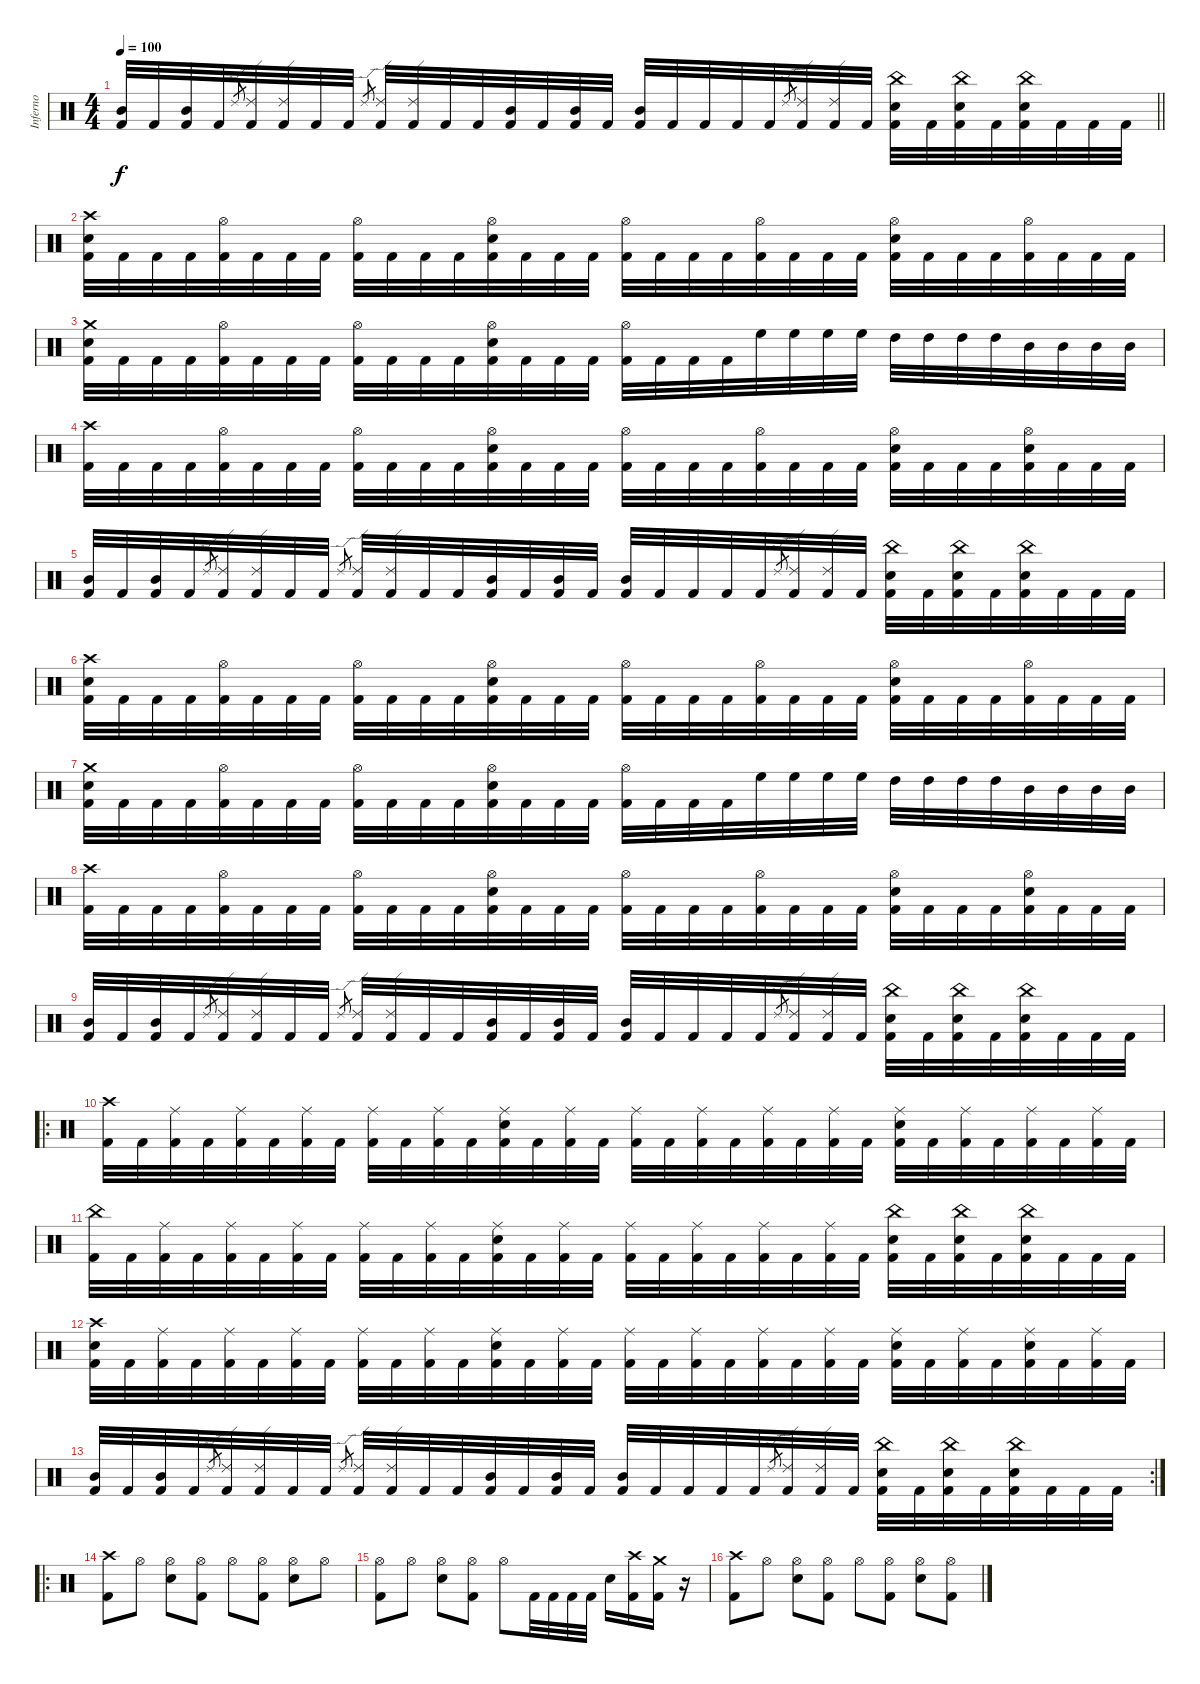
\track ("Inferno" "Inferno") {instrument percussion}
\staff {score}
\articulation defaults
\ts (4 4)
\tempo 100
\clef neutral
\barLineRight lightlight
\ks c
("Kick (hit) 2" "Mid Tom (hit)").32{dy f} "Kick (hit) 2".32 ("Kick (hit) 2" "Mid Tom (hit)").32 "Kick (hit) 2".32 "Ride (edge) 2".8{gr} ("Kick (hit) 2" "Ride (edge) 2").32 ("Kick (hit) 2" "Ride (edge) 2").32 "Kick (hit) 2".32 "Kick (hit) 2".32 "Ride (edge) 2".8{gr} ("Kick (hit) 2" "Ride (edge) 2").32 ("Kick (hit) 2" "Ride (edge) 2").32 "Kick (hit) 2".32 "Kick (hit) 2".32 ("Kick (hit) 2" "Mid Tom (hit)").32 "Kick (hit) 2".32 ("Kick (hit) 2" "Mid Tom (hit)").32 "Kick (hit) 2".32 ("Kick (hit) 2" "Mid Tom (hit)").32 "Kick (hit) 2".32 "Kick (hit) 2".32 "Kick (hit) 2".32 "Kick (hit) 2".32 "Ride (edge) 2".8{gr} ("Kick (hit) 2" "Ride (edge) 2").32 ("Kick (hit) 2" "Ride (edge) 2").32 "Kick (hit) 2".32 ("Kick (hit) 2" "Electric Snare (hit)" "China (hit)").32 "Kick (hit) 2".32 ("Kick (hit) 2" "Electric Snare (hit)" "China (hit)").32 "Kick (hit) 2".32 ("Kick (hit) 2" "Electric Snare (hit)" "China (hit)").32 "Kick (hit) 2".32 "Kick (hit) 2".32 "Kick (hit) 2".32 |
\section ("" "")
("Kick (hit) 2" "Electric Snare (hit)" "Crash high (hit)").32 "Kick (hit) 2".32 "Kick (hit) 2".32 "Kick (hit) 2".32 ("Kick (hit) 2" "Hi-Hat (open)").32 "Kick (hit) 2".32 "Kick (hit) 2".32 "Kick (hit) 2".32 ("Kick (hit) 2" "Hi-Hat (open)").32 "Kick (hit) 2".32 "Kick (hit) 2".32 "Kick (hit) 2".32 ("Kick (hit) 2" "Electric Snare (hit)" "Hi-Hat (open)").32 "Kick (hit) 2".32 "Kick (hit) 2".32 "Kick (hit) 2".32 ("Kick (hit) 2" "Hi-Hat (open)").32 "Kick (hit) 2".32 "Kick (hit) 2".32 "Kick (hit) 2".32 ("Kick (hit) 2" "Hi-Hat (open)").32 "Kick (hit) 2".32 "Kick (hit) 2".32 "Kick (hit) 2".32 ("Kick (hit) 2" "Electric Snare (hit)" "Hi-Hat (open)").32 "Kick (hit) 2".32 "Kick (hit) 2".32 "Kick (hit) 2".32 ("Kick (hit) 2" "Hi-Hat (open)").32 "Kick (hit) 2".32 "Kick (hit) 2".32 "Kick (hit) 2".32 |
("Kick (hit) 2" "Electric Snare (hit)" "Crash medium (hit)").32 "Kick (hit) 2".32 "Kick (hit) 2".32 "Kick (hit) 2".32 ("Kick (hit) 2" "Hi-Hat (open)").32 "Kick (hit) 2".32 "Kick (hit) 2".32 "Kick (hit) 2".32 ("Kick (hit) 2" "Hi-Hat (open)").32 "Kick (hit) 2".32 "Kick (hit) 2".32 "Kick (hit) 2".32 ("Kick (hit) 2" "Electric Snare (hit)" "Hi-Hat (open)").32 "Kick (hit) 2".32 "Kick (hit) 2".32 "Kick (hit) 2".32 ("Kick (hit) 2" "Hi-Hat (open)").32 "Kick (hit) 2".32 "Kick (hit) 2".32 "Kick (hit) 2".32 "High Floor Tom (hit)".32 "High Floor Tom (hit)".32 "High Floor Tom (hit)".32 "High Floor Tom (hit)".32 "High Tom (hit)".32 "High Tom (hit)".32 "High Tom (hit)".32 "High Tom (hit)".32 "Mid Tom (hit)".32 "Mid Tom (hit)".32 "Mid Tom (hit)".32 "Mid Tom (hit)".32 |
("Kick (hit) 2" "Crash high (hit)").32 "Kick (hit) 2".32 "Kick (hit) 2".32 "Kick (hit) 2".32 ("Kick (hit) 2" "Hi-Hat (open)").32 "Kick (hit) 2".32 "Kick (hit) 2".32 "Kick (hit) 2".32 ("Kick (hit) 2" "Hi-Hat (open)").32 "Kick (hit) 2".32 "Kick (hit) 2".32 "Kick (hit) 2".32 ("Kick (hit) 2" "Electric Snare (hit)" "Hi-Hat (open)").32 "Kick (hit) 2".32 "Kick (hit) 2".32 "Kick (hit) 2".32 ("Kick (hit) 2" "Hi-Hat (open)").32 "Kick (hit) 2".32 "Kick (hit) 2".32 "Kick (hit) 2".32 ("Kick (hit) 2" "Hi-Hat (open)").32 "Kick (hit) 2".32 "Kick (hit) 2".32 "Kick (hit) 2".32 ("Kick (hit) 2" "Electric Snare (hit)" "Hi-Hat (open)").32 "Kick (hit) 2".32 "Kick (hit) 2".32 "Kick (hit) 2".32 ("Kick (hit) 2" "Electric Snare (hit)" "Hi-Hat (open)").32 "Kick (hit) 2".32 "Kick (hit) 2".32 "Kick (hit) 2".32 |
("Kick (hit) 2" "Mid Tom (hit)").32 "Kick (hit) 2".32 ("Kick (hit) 2" "Mid Tom (hit)").32 "Kick (hit) 2".32 "Ride (edge) 2".8{gr} ("Kick (hit) 2" "Ride (edge) 2").32 ("Kick (hit) 2" "Ride (edge) 2").32 "Kick (hit) 2".32 "Kick (hit) 2".32 "Ride (edge) 2".8{gr} ("Kick (hit) 2" "Ride (edge) 2").32 ("Kick (hit) 2" "Ride (edge) 2").32 "Kick (hit) 2".32 "Kick (hit) 2".32 ("Kick (hit) 2" "Mid Tom (hit)").32 "Kick (hit) 2".32 ("Kick (hit) 2" "Mid Tom (hit)").32 "Kick (hit) 2".32 ("Kick (hit) 2" "Mid Tom (hit)").32 "Kick (hit) 2".32 "Kick (hit) 2".32 "Kick (hit) 2".32 "Kick (hit) 2".32 "Ride (edge) 2".8{gr} ("Kick (hit) 2" "Ride (edge) 2").32 ("Kick (hit) 2" "Ride (edge) 2").32 "Kick (hit) 2".32 ("Kick (hit) 2" "Electric Snare (hit)" "China (hit)").32 "Kick (hit) 2".32 ("Kick (hit) 2" "Electric Snare (hit)" "China (hit)").32 "Kick (hit) 2".32 ("Kick (hit) 2" "Electric Snare (hit)" "China (hit)").32 "Kick (hit) 2".32 "Kick (hit) 2".32 "Kick (hit) 2".32 |
("Kick (hit) 2" "Electric Snare (hit)" "Crash high (hit)").32 "Kick (hit) 2".32 "Kick (hit) 2".32 "Kick (hit) 2".32 ("Kick (hit) 2" "Hi-Hat (open)").32 "Kick (hit) 2".32 "Kick (hit) 2".32 "Kick (hit) 2".32 ("Kick (hit) 2" "Hi-Hat (open)").32 "Kick (hit) 2".32 "Kick (hit) 2".32 "Kick (hit) 2".32 ("Kick (hit) 2" "Electric Snare (hit)" "Hi-Hat (open)").32 "Kick (hit) 2".32 "Kick (hit) 2".32 "Kick (hit) 2".32 ("Kick (hit) 2" "Hi-Hat (open)").32 "Kick (hit) 2".32 "Kick (hit) 2".32 "Kick (hit) 2".32 ("Kick (hit) 2" "Hi-Hat (open)").32 "Kick (hit) 2".32 "Kick (hit) 2".32 "Kick (hit) 2".32 ("Kick (hit) 2" "Electric Snare (hit)" "Hi-Hat (open)").32 "Kick (hit) 2".32 "Kick (hit) 2".32 "Kick (hit) 2".32 ("Kick (hit) 2" "Hi-Hat (open)").32 "Kick (hit) 2".32 "Kick (hit) 2".32 "Kick (hit) 2".32 |
("Kick (hit) 2" "Electric Snare (hit)" "Crash medium (hit)").32 "Kick (hit) 2".32 "Kick (hit) 2".32 "Kick (hit) 2".32 ("Kick (hit) 2" "Hi-Hat (open)").32 "Kick (hit) 2".32 "Kick (hit) 2".32 "Kick (hit) 2".32 ("Kick (hit) 2" "Hi-Hat (open)").32 "Kick (hit) 2".32 "Kick (hit) 2".32 "Kick (hit) 2".32 ("Kick (hit) 2" "Electric Snare (hit)" "Hi-Hat (open)").32 "Kick (hit) 2".32 "Kick (hit) 2".32 "Kick (hit) 2".32 ("Kick (hit) 2" "Hi-Hat (open)").32 "Kick (hit) 2".32 "Kick (hit) 2".32 "Kick (hit) 2".32 "High Floor Tom (hit)".32 "High Floor Tom (hit)".32 "High Floor Tom (hit)".32 "High Floor Tom (hit)".32 "High Tom (hit)".32 "High Tom (hit)".32 "High Tom (hit)".32 "High Tom (hit)".32 "Mid Tom (hit)".32 "Mid Tom (hit)".32 "Mid Tom (hit)".32 "Mid Tom (hit)".32 |
("Kick (hit) 2" "Crash high (hit)").32 "Kick (hit) 2".32 "Kick (hit) 2".32 "Kick (hit) 2".32 ("Kick (hit) 2" "Hi-Hat (open)").32 "Kick (hit) 2".32 "Kick (hit) 2".32 "Kick (hit) 2".32 ("Kick (hit) 2" "Hi-Hat (open)").32 "Kick (hit) 2".32 "Kick (hit) 2".32 "Kick (hit) 2".32 ("Kick (hit) 2" "Electric Snare (hit)" "Hi-Hat (open)").32 "Kick (hit) 2".32 "Kick (hit) 2".32 "Kick (hit) 2".32 ("Kick (hit) 2" "Hi-Hat (open)").32 "Kick (hit) 2".32 "Kick (hit) 2".32 "Kick (hit) 2".32 ("Kick (hit) 2" "Hi-Hat (open)").32 "Kick (hit) 2".32 "Kick (hit) 2".32 "Kick (hit) 2".32 ("Kick (hit) 2" "Electric Snare (hit)" "Hi-Hat (open)").32 "Kick (hit) 2".32 "Kick (hit) 2".32 "Kick (hit) 2".32 ("Kick (hit) 2" "Electric Snare (hit)" "Hi-Hat (open)").32 "Kick (hit) 2".32 "Kick (hit) 2".32 "Kick (hit) 2".32 |
("Kick (hit) 2" "Mid Tom (hit)").32 "Kick (hit) 2".32 ("Kick (hit) 2" "Mid Tom (hit)").32 "Kick (hit) 2".32 "Ride (edge) 2".8{gr} ("Kick (hit) 2" "Ride (edge) 2").32 ("Kick (hit) 2" "Ride (edge) 2").32 "Kick (hit) 2".32 "Kick (hit) 2".32 "Ride (edge) 2".8{gr} ("Kick (hit) 2" "Ride (edge) 2").32 ("Kick (hit) 2" "Ride (edge) 2").32 "Kick (hit) 2".32 "Kick (hit) 2".32 ("Kick (hit) 2" "Mid Tom (hit)").32 "Kick (hit) 2".32 ("Kick (hit) 2" "Mid Tom (hit)").32 "Kick (hit) 2".32 ("Kick (hit) 2" "Mid Tom (hit)").32 "Kick (hit) 2".32 "Kick (hit) 2".32 "Kick (hit) 2".32 "Kick (hit) 2".32 "Ride (edge) 2".8{gr} ("Kick (hit) 2" "Ride (edge) 2").32 ("Kick (hit) 2" "Ride (edge) 2").32 "Kick (hit) 2".32 ("Kick (hit) 2" "Electric Snare (hit)" "China (hit)").32 "Kick (hit) 2".32 ("Kick (hit) 2" "Electric Snare (hit)" "China (hit)").32 "Kick (hit) 2".32 ("Kick (hit) 2" "Electric Snare (hit)" "China (hit)").32 "Kick (hit) 2".32 "Kick (hit) 2".32 "Kick (hit) 2".32 |
\ro
("Kick (hit) 2" "Crash high (hit)").32 "Kick (hit) 2".32 ("Kick (hit) 2" "Ride (middle)").32 "Kick (hit) 2".32 ("Kick (hit) 2" "Ride (middle)").32 "Kick (hit) 2".32 ("Kick (hit) 2" "Ride (middle)").32 "Kick (hit) 2".32 ("Kick (hit) 2" "Ride (middle)").32 "Kick (hit) 2".32 ("Kick (hit) 2" "Ride (middle)").32 "Kick (hit) 2".32 ("Kick (hit) 2" "Electric Snare (hit)" "Ride (middle)").32 "Kick (hit) 2".32 ("Kick (hit) 2" "Ride (middle)").32 "Kick (hit) 2".32 ("Kick (hit) 2" "Ride (middle)").32 "Kick (hit) 2".32 ("Kick (hit) 2" "Ride (middle)").32 "Kick (hit) 2".32 ("Kick (hit) 2" "Ride (middle)").32 "Kick (hit) 2".32 ("Kick (hit) 2" "Ride (middle)").32 "Kick (hit) 2".32 ("Kick (hit) 2" "Electric Snare (hit)" "Ride (middle)").32 "Kick (hit) 2".32 ("Kick (hit) 2" "Ride (middle)").32 "Kick (hit) 2".32 ("Kick (hit) 2" "Ride (middle)").32 "Kick (hit) 2".32 ("Kick (hit) 2" "Ride (middle)").32 "Kick (hit) 2".32 |
("Kick (hit) 2" "China (hit)").32 "Kick (hit) 2".32 ("Kick (hit) 2" "Ride (middle)").32 "Kick (hit) 2".32 ("Kick (hit) 2" "Ride (middle)").32 "Kick (hit) 2".32 ("Kick (hit) 2" "Ride (middle)").32 "Kick (hit) 2".32 ("Kick (hit) 2" "Ride (middle)").32 "Kick (hit) 2".32 ("Kick (hit) 2" "Ride (middle)").32 "Kick (hit) 2".32 ("Kick (hit) 2" "Electric Snare (hit)" "Ride (middle)").32 "Kick (hit) 2".32 ("Kick (hit) 2" "Ride (middle)").32 "Kick (hit) 2".32 ("Kick (hit) 2" "Ride (middle)").32 "Kick (hit) 2".32 ("Kick (hit) 2" "Ride (middle)").32 "Kick (hit) 2".32 ("Kick (hit) 2" "Ride (middle)").32 "Kick (hit) 2".32 ("Kick (hit) 2" "Ride (middle)").32 "Kick (hit) 2".32 ("Kick (hit) 2" "Electric Snare (hit)" "China (hit)").32 "Kick (hit) 2".32 ("Kick (hit) 2" "Electric Snare (hit)" "China (hit)").32 "Kick (hit) 2".32 ("Kick (hit) 2" "Electric Snare (hit)" "China (hit)").32 "Kick (hit) 2".32 "Kick (hit) 2".32 "Kick (hit) 2".32 |
("Kick (hit) 2" "Electric Snare (hit)" "Crash high (hit)").32 "Kick (hit) 2".32 ("Kick (hit) 2" "Ride (middle)").32 "Kick (hit) 2".32 ("Kick (hit) 2" "Ride (middle)").32 "Kick (hit) 2".32 ("Kick (hit) 2" "Ride (middle)").32 "Kick (hit) 2".32 ("Kick (hit) 2" "Ride (middle)").32 "Kick (hit) 2".32 ("Kick (hit) 2" "Ride (middle)").32 "Kick (hit) 2".32 ("Kick (hit) 2" "Electric Snare (hit)" "Ride (middle)").32 "Kick (hit) 2".32 ("Kick (hit) 2" "Ride (middle)").32 "Kick (hit) 2".32 ("Kick (hit) 2" "Ride (middle)").32 "Kick (hit) 2".32 ("Kick (hit) 2" "Ride (middle)").32 "Kick (hit) 2".32 ("Kick (hit) 2" "Ride (middle)").32 "Kick (hit) 2".32 ("Kick (hit) 2" "Ride (middle)").32 "Kick (hit) 2".32 ("Kick (hit) 2" "Electric Snare (hit)" "Ride (middle)").32 "Kick (hit) 2".32 ("Kick (hit) 2" "Ride (middle)").32 "Kick (hit) 2".32 ("Kick (hit) 2" "Electric Snare (hit)" "Ride (middle)").32 "Kick (hit) 2".32 ("Kick (hit) 2" "Ride (middle)").32 "Kick (hit) 2".32 |
\rc 2
("Kick (hit) 2" "Mid Tom (hit)").32 "Kick (hit) 2".32 ("Kick (hit) 2" "Mid Tom (hit)").32 "Kick (hit) 2".32 "Ride (edge) 2".8{gr} ("Kick (hit) 2" "Ride (edge) 2").32 ("Kick (hit) 2" "Ride (edge) 2").32 "Kick (hit) 2".32 "Kick (hit) 2".32 "Ride (edge) 2".8{gr} ("Kick (hit) 2" "Ride (edge) 2").32 ("Kick (hit) 2" "Ride (edge) 2").32 "Kick (hit) 2".32 "Kick (hit) 2".32 ("Kick (hit) 2" "Mid Tom (hit)").32 "Kick (hit) 2".32 ("Kick (hit) 2" "Mid Tom (hit)").32 "Kick (hit) 2".32 ("Kick (hit) 2" "Mid Tom (hit)").32 "Kick (hit) 2".32 "Kick (hit) 2".32 "Kick (hit) 2".32 "Kick (hit) 2".32 "Ride (edge) 2".8{gr} ("Kick (hit) 2" "Ride (edge) 2").32 ("Kick (hit) 2" "Ride (edge) 2").32 "Kick (hit) 2".32 ("Kick (hit) 2" "Electric Snare (hit)" "China (hit)").32 "Kick (hit) 2".32 ("Kick (hit) 2" "Electric Snare (hit)" "China (hit)").32 "Kick (hit) 2".32 ("Kick (hit) 2" "Electric Snare (hit)" "China (hit)").32 "Kick (hit) 2".32 "Kick (hit) 2".32 "Kick (hit) 2".32 |
\ro
("Kick (hit) 2" "Crash high (hit)").8 "Hi-Hat (open)".8 ("Electric Snare (hit)" "Hi-Hat (open)").8 ("Kick (hit) 2" "Hi-Hat (open)").8 "Hi-Hat (open)".8 ("Kick (hit) 2" "Hi-Hat (open)").8 ("Electric Snare (hit)" "Hi-Hat (open)").8 "Hi-Hat (open)".8 |
("Hi-Hat (open)" "Kick (hit) 2").8 "Hi-Hat (open)".8 ("Hi-Hat (open)" "Electric Snare (hit)").8 ("Hi-Hat (open)" "Kick (hit) 2").8 "Hi-Hat (open)".8 "Kick (hit) 2".32 "Kick (hit) 2".32 "Kick (hit) 2".32 "Kick (hit) 2".32 "Electric Snare (hit)".16 ("Crash high (hit)" "Kick (hit) 2").16 ("Crash medium (hit)" "Kick (hit) 2").16 r.16 |
("Kick (hit) 2" "Crash high (hit)").8 "Hi-Hat (open)".8 ("Electric Snare (hit)" "Hi-Hat (open)").8 ("Kick (hit) 2" "Hi-Hat (open)").8 "Hi-Hat (open)".8 ("Kick (hit) 2" "Hi-Hat (open)").8 ("Electric Snare (hit)" "Hi-Hat (open)").8 ("Kick (hit) 2" "Hi-Hat (open)").8
